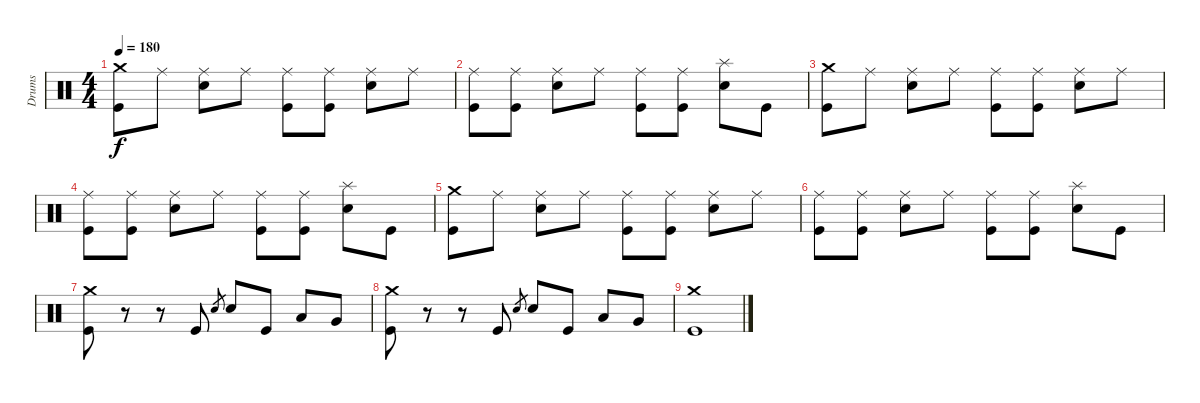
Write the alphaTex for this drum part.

\track ("Drums" "Drums") {instrument percussion}
\staff {score}
\articulation defaults
\ts (4 4)
\tempo 180
\clef neutral
\ks c
("Crash medium (hit)" "Kick (hit)").8{dy f} "Ride (middle)".8 ("Ride (middle)" "Electric Snare (hit)").8 "Ride (middle)".8 ("Ride (middle)" "Kick (hit)").8 ("Ride (middle)" "Kick (hit)").8 ("Ride (middle)" "Electric Snare (hit)").8 "Ride (middle)".8 |
("Ride (middle)" "Kick (hit)").8 ("Ride (middle)" "Kick (hit)").8 ("Ride (middle)" "Electric Snare (hit)").8 "Ride (middle)".8 ("Ride (middle)" "Kick (hit)").8 ("Ride (middle)" "Kick (hit)").8 ("Splash (hit)" "Electric Snare (hit)").8 "Kick (hit)".8 |
("Crash medium (hit)" "Kick (hit)").8 "Ride (middle)".8 ("Ride (middle)" "Electric Snare (hit)").8 "Ride (middle)".8 ("Ride (middle)" "Kick (hit)").8 ("Ride (middle)" "Kick (hit)").8 ("Ride (middle)" "Electric Snare (hit)").8 "Ride (middle)".8 |
("Ride (middle)" "Kick (hit)").8 ("Ride (middle)" "Kick (hit)").8 ("Ride (middle)" "Electric Snare (hit)").8 "Ride (middle)".8 ("Ride (middle)" "Kick (hit)").8 ("Ride (middle)" "Kick (hit)").8 ("Splash (hit)" "Electric Snare (hit)").8 "Kick (hit)".8 |
("Crash medium (hit)" "Kick (hit)").8 "Ride (middle)".8 ("Ride (middle)" "Electric Snare (hit)").8 "Ride (middle)".8 ("Ride (middle)" "Kick (hit)").8 ("Ride (middle)" "Kick (hit)").8 ("Ride (middle)" "Electric Snare (hit)").8 "Ride (middle)".8 |
("Ride (middle)" "Kick (hit)").8 ("Ride (middle)" "Kick (hit)").8 ("Ride (middle)" "Electric Snare (hit)").8 "Ride (middle)".8 ("Ride (middle)" "Kick (hit)").8 ("Ride (middle)" "Kick (hit)").8 ("Splash (hit)" "Electric Snare (hit)").8 "Kick (hit)".8 |
("Crash medium (hit)" "Kick (hit)").8 r.8 r.8 "Kick (hit)".8 "Electric Snare (hit)".8{gr} "Electric Snare (hit)".8 "Kick (hit)".8 "Low Tom (hit)".8 "Very Low Tom (hit)".8 |
("Crash medium (hit)" "Kick (hit)").8 r.8 r.8 "Kick (hit)".8 "Electric Snare (hit)".8{gr} "Electric Snare (hit)".8 "Kick (hit)".8 "Low Tom (hit)".8 "Very Low Tom (hit)".8 |
("Crash medium (hit)" "Kick (hit)").1
